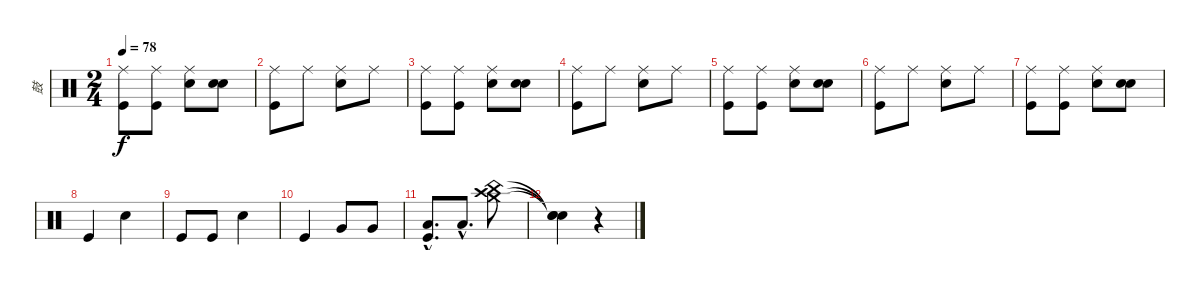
\track ("鼓" "鼓") {instrument percussion}
\staff {score}
\articulation defaults
\ts (2 4)
\tempo 78
\clef neutral
\ks c
("Ride (middle)" "Kick (hit)").8{dy f} ("Ride (middle)" "Kick (hit)").8 ("Ride (middle)" "Metronome (bell)").8 ("Snare (hit)" "Metronome (bell)").8 |
("Ride (middle)" "Kick (hit)").8 "Ride (middle)".8 ("Ride (middle)" "Metronome (bell)").8 "Ride (middle)".8 |
("Ride (middle)" "Kick (hit)").8 ("Ride (middle)" "Kick (hit)").8 ("Ride (middle)" "Metronome (bell)").8 ("Snare (hit)" "Metronome (bell)").8 |
("Ride (middle)" "Kick (hit)").8 "Ride (middle)".8 ("Ride (middle)" "Metronome (bell)").8 "Ride (middle)".8 |
("Ride (middle)" "Kick (hit)").8 ("Ride (middle)" "Kick (hit)").8 ("Ride (middle)" "Metronome (bell)").8 ("Snare (hit)" "Metronome (bell)").8 |
("Ride (middle)" "Kick (hit)").8 "Ride (middle)".8 ("Ride (middle)" "Metronome (bell)").8 "Ride (middle)".8 |
("Ride (middle)" "Kick (hit)").8 ("Ride (middle)" "Kick (hit)").8 ("Ride (middle)" "Metronome (bell)").8 ("Snare (hit)" "Metronome (bell)").8 |
"Kick (hit)".4 "Snare (hit) 2".4 |
"Kick (hit)".8 "Kick (hit)".8 "Snare (hit) 2".4 |
"Kick (hit)".4 "Very Low Tom (hit)".8 "Very Low Tom (hit)".8 |
("Low Floor Tom (hit)"{hac} "Kick (hit)"{hac}).8{d} "Low Floor Tom (hit)"{hac}.8{d} ("Crash medium (hit)" "Crash high (hit)" "China (hit)").8 |
("Snare (hit)"{t} "Snare (hit)"{t} "Snare (hit)"{t}).4 r.4
